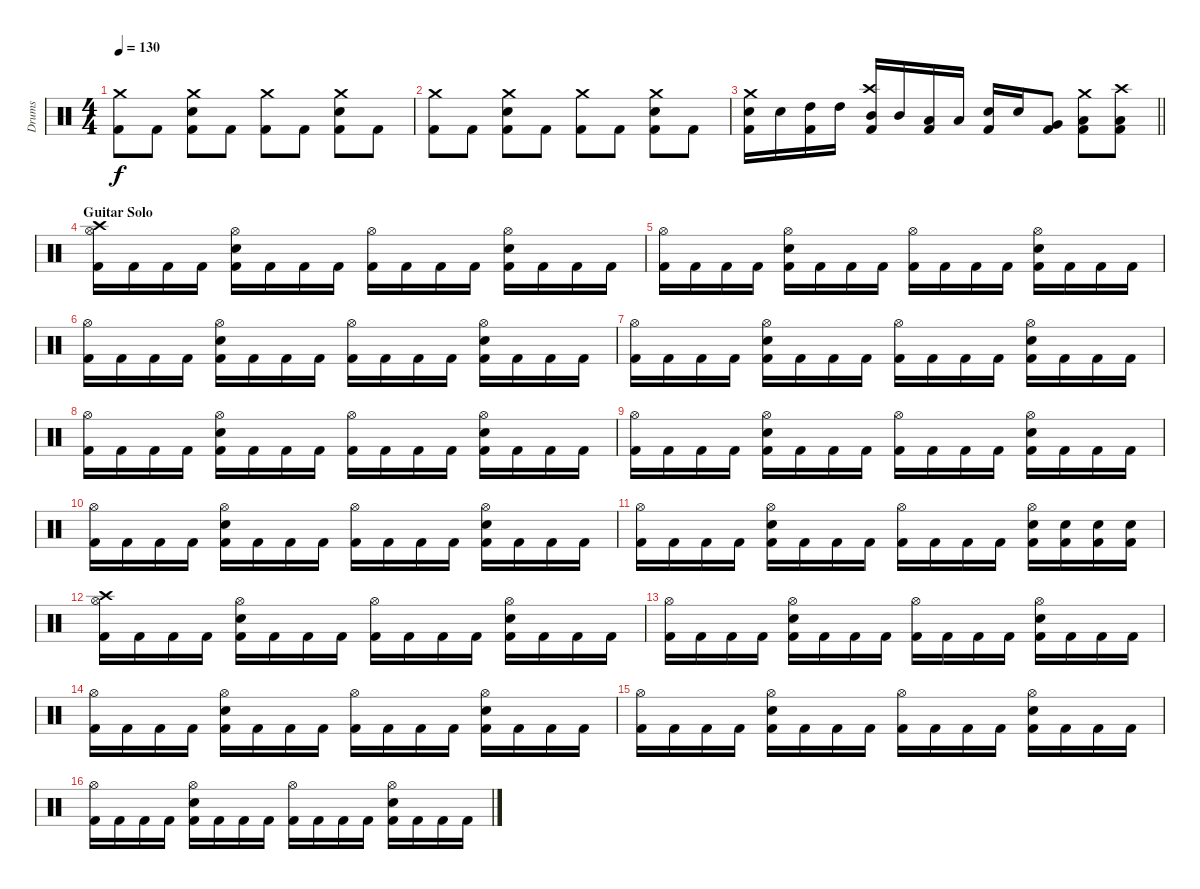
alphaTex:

\track ("Drums" "Drums") {instrument percussion}
\staff {score}
\articulation defaults
\ts (4 4)
\tempo 130
\clef neutral
\ks c
("Crash medium (hit)" "Kick (hit) 2").8{dy f} "Kick (hit) 2".8 ("Crash medium (hit)" "Snare (hit) 2" "Kick (hit) 2").8 "Kick (hit) 2".8 ("Crash medium (hit)" "Kick (hit) 2").8 "Kick (hit) 2".8 ("Crash medium (hit)" "Snare (hit) 2" "Kick (hit) 2").8 "Kick (hit) 2".8 |
("Crash medium (hit)" "Kick (hit) 2").8 "Kick (hit) 2".8 ("Crash medium (hit)" "Snare (hit) 2" "Kick (hit) 2").8 "Kick (hit) 2".8 ("Crash medium (hit)" "Kick (hit) 2").8 "Kick (hit) 2".8 ("Crash medium (hit)" "Snare (hit) 2" "Kick (hit) 2").8 "Kick (hit) 2".8 |
\barLineRight lightlight
("Crash medium (hit)" "Snare (hit) 2" "Kick (hit) 2").16 "Snare (hit) 2".16 ("High Tom (hit)" "Kick (hit) 2").16 "High Tom (hit)".16 ("Crash high (hit)" "Mid Tom (hit)" "Kick (hit) 2").16 "Mid Tom (hit)".16 ("Low Tom (hit)" "Kick (hit) 2").16 "Low Tom (hit)".16 ("Snare (hit) 2" "Kick (hit) 2").16 "Snare (hit) 2".16 ("Very Low Tom (hit)" "Kick (hit) 2").8 ("Crash medium (hit)" "Low Floor Tom (hit)" "Kick (hit) 2").8 ("Crash high (hit)" "Low Floor Tom (hit)" "Kick (hit) 2").8 |
\section ("" "Guitar Solo")
("Crash high (hit)" "Hi-Hat (open)" "Kick (hit) 2").16 "Kick (hit) 2".16 "Kick (hit) 2".16 "Kick (hit) 2".16 ("Hi-Hat (open)" "Snare (hit) 2" "Kick (hit) 2").16 "Kick (hit) 2".16 "Kick (hit) 2".16 "Kick (hit) 2".16 ("Hi-Hat (open)" "Kick (hit) 2").16 "Kick (hit) 2".16 "Kick (hit) 2".16 "Kick (hit) 2".16 ("Hi-Hat (open)" "Snare (hit) 2" "Kick (hit) 2").16 "Kick (hit) 2".16 "Kick (hit) 2".16 "Kick (hit) 2".16 |
("Hi-Hat (open)" "Kick (hit) 2").16 "Kick (hit) 2".16 "Kick (hit) 2".16 "Kick (hit) 2".16 ("Hi-Hat (open)" "Snare (hit) 2" "Kick (hit) 2").16 "Kick (hit) 2".16 "Kick (hit) 2".16 "Kick (hit) 2".16 ("Hi-Hat (open)" "Kick (hit) 2").16 "Kick (hit) 2".16 "Kick (hit) 2".16 "Kick (hit) 2".16 ("Hi-Hat (open)" "Snare (hit) 2" "Kick (hit) 2").16 "Kick (hit) 2".16 "Kick (hit) 2".16 "Kick (hit) 2".16 |
("Hi-Hat (open)" "Kick (hit) 2").16 "Kick (hit) 2".16 "Kick (hit) 2".16 "Kick (hit) 2".16 ("Hi-Hat (open)" "Snare (hit) 2" "Kick (hit) 2").16 "Kick (hit) 2".16 "Kick (hit) 2".16 "Kick (hit) 2".16 ("Hi-Hat (open)" "Kick (hit) 2").16 "Kick (hit) 2".16 "Kick (hit) 2".16 "Kick (hit) 2".16 ("Hi-Hat (open)" "Snare (hit) 2" "Kick (hit) 2").16 "Kick (hit) 2".16 "Kick (hit) 2".16 "Kick (hit) 2".16 |
("Hi-Hat (open)" "Kick (hit) 2").16 "Kick (hit) 2".16 "Kick (hit) 2".16 "Kick (hit) 2".16 ("Hi-Hat (open)" "Snare (hit) 2" "Kick (hit) 2").16 "Kick (hit) 2".16 "Kick (hit) 2".16 "Kick (hit) 2".16 ("Hi-Hat (open)" "Kick (hit) 2").16 "Kick (hit) 2".16 "Kick (hit) 2".16 "Kick (hit) 2".16 ("Hi-Hat (open)" "Snare (hit) 2" "Kick (hit) 2").16 "Kick (hit) 2".16 "Kick (hit) 2".16 "Kick (hit) 2".16 |
("Hi-Hat (open)" "Kick (hit) 2").16 "Kick (hit) 2".16 "Kick (hit) 2".16 "Kick (hit) 2".16 ("Hi-Hat (open)" "Snare (hit) 2" "Kick (hit) 2").16 "Kick (hit) 2".16 "Kick (hit) 2".16 "Kick (hit) 2".16 ("Hi-Hat (open)" "Kick (hit) 2").16 "Kick (hit) 2".16 "Kick (hit) 2".16 "Kick (hit) 2".16 ("Hi-Hat (open)" "Snare (hit) 2" "Kick (hit) 2").16 "Kick (hit) 2".16 "Kick (hit) 2".16 "Kick (hit) 2".16 |
("Hi-Hat (open)" "Kick (hit) 2").16 "Kick (hit) 2".16 "Kick (hit) 2".16 "Kick (hit) 2".16 ("Hi-Hat (open)" "Snare (hit) 2" "Kick (hit) 2").16 "Kick (hit) 2".16 "Kick (hit) 2".16 "Kick (hit) 2".16 ("Hi-Hat (open)" "Kick (hit) 2").16 "Kick (hit) 2".16 "Kick (hit) 2".16 "Kick (hit) 2".16 ("Hi-Hat (open)" "Snare (hit) 2" "Kick (hit) 2").16 "Kick (hit) 2".16 "Kick (hit) 2".16 "Kick (hit) 2".16 |
("Hi-Hat (open)" "Kick (hit) 2").16 "Kick (hit) 2".16 "Kick (hit) 2".16 "Kick (hit) 2".16 ("Hi-Hat (open)" "Snare (hit) 2" "Kick (hit) 2").16 "Kick (hit) 2".16 "Kick (hit) 2".16 "Kick (hit) 2".16 ("Hi-Hat (open)" "Kick (hit) 2").16 "Kick (hit) 2".16 "Kick (hit) 2".16 "Kick (hit) 2".16 ("Hi-Hat (open)" "Snare (hit) 2" "Kick (hit) 2").16 "Kick (hit) 2".16 "Kick (hit) 2".16 "Kick (hit) 2".16 |
("Hi-Hat (open)" "Kick (hit) 2").16 "Kick (hit) 2".16 "Kick (hit) 2".16 "Kick (hit) 2".16 ("Hi-Hat (open)" "Snare (hit) 2" "Kick (hit) 2").16 "Kick (hit) 2".16 "Kick (hit) 2".16 "Kick (hit) 2".16 ("Hi-Hat (open)" "Kick (hit) 2").16 "Kick (hit) 2".16 "Kick (hit) 2".16 "Kick (hit) 2".16 ("Hi-Hat (open)" "Snare (hit) 2" "Kick (hit) 2").16 ("Snare (hit) 2" "Kick (hit) 2").16 ("Snare (hit) 2" "Kick (hit) 2").16 ("Snare (hit) 2" "Kick (hit) 2").16 |
("Crash high (hit)" "Hi-Hat (open)" "Kick (hit) 2").16 "Kick (hit) 2".16 "Kick (hit) 2".16 "Kick (hit) 2".16 ("Hi-Hat (open)" "Snare (hit) 2" "Kick (hit) 2").16 "Kick (hit) 2".16 "Kick (hit) 2".16 "Kick (hit) 2".16 ("Hi-Hat (open)" "Kick (hit) 2").16 "Kick (hit) 2".16 "Kick (hit) 2".16 "Kick (hit) 2".16 ("Hi-Hat (open)" "Snare (hit) 2" "Kick (hit) 2").16 "Kick (hit) 2".16 "Kick (hit) 2".16 "Kick (hit) 2".16 |
("Hi-Hat (open)" "Kick (hit) 2").16 "Kick (hit) 2".16 "Kick (hit) 2".16 "Kick (hit) 2".16 ("Hi-Hat (open)" "Snare (hit) 2" "Kick (hit) 2").16 "Kick (hit) 2".16 "Kick (hit) 2".16 "Kick (hit) 2".16 ("Hi-Hat (open)" "Kick (hit) 2").16 "Kick (hit) 2".16 "Kick (hit) 2".16 "Kick (hit) 2".16 ("Hi-Hat (open)" "Snare (hit) 2" "Kick (hit) 2").16 "Kick (hit) 2".16 "Kick (hit) 2".16 "Kick (hit) 2".16 |
("Hi-Hat (open)" "Kick (hit) 2").16 "Kick (hit) 2".16 "Kick (hit) 2".16 "Kick (hit) 2".16 ("Hi-Hat (open)" "Snare (hit) 2" "Kick (hit) 2").16 "Kick (hit) 2".16 "Kick (hit) 2".16 "Kick (hit) 2".16 ("Hi-Hat (open)" "Kick (hit) 2").16 "Kick (hit) 2".16 "Kick (hit) 2".16 "Kick (hit) 2".16 ("Hi-Hat (open)" "Snare (hit) 2" "Kick (hit) 2").16 "Kick (hit) 2".16 "Kick (hit) 2".16 "Kick (hit) 2".16 |
("Hi-Hat (open)" "Kick (hit) 2").16 "Kick (hit) 2".16 "Kick (hit) 2".16 "Kick (hit) 2".16 ("Hi-Hat (open)" "Snare (hit) 2" "Kick (hit) 2").16 "Kick (hit) 2".16 "Kick (hit) 2".16 "Kick (hit) 2".16 ("Hi-Hat (open)" "Kick (hit) 2").16 "Kick (hit) 2".16 "Kick (hit) 2".16 "Kick (hit) 2".16 ("Hi-Hat (open)" "Snare (hit) 2" "Kick (hit) 2").16 "Kick (hit) 2".16 "Kick (hit) 2".16 "Kick (hit) 2".16 |
("Hi-Hat (open)" "Kick (hit) 2").16 "Kick (hit) 2".16 "Kick (hit) 2".16 "Kick (hit) 2".16 ("Hi-Hat (open)" "Snare (hit) 2" "Kick (hit) 2").16 "Kick (hit) 2".16 "Kick (hit) 2".16 "Kick (hit) 2".16 ("Hi-Hat (open)" "Kick (hit) 2").16 "Kick (hit) 2".16 "Kick (hit) 2".16 "Kick (hit) 2".16 ("Hi-Hat (open)" "Snare (hit) 2" "Kick (hit) 2").16 "Kick (hit) 2".16 "Kick (hit) 2".16 "Kick (hit) 2".16
